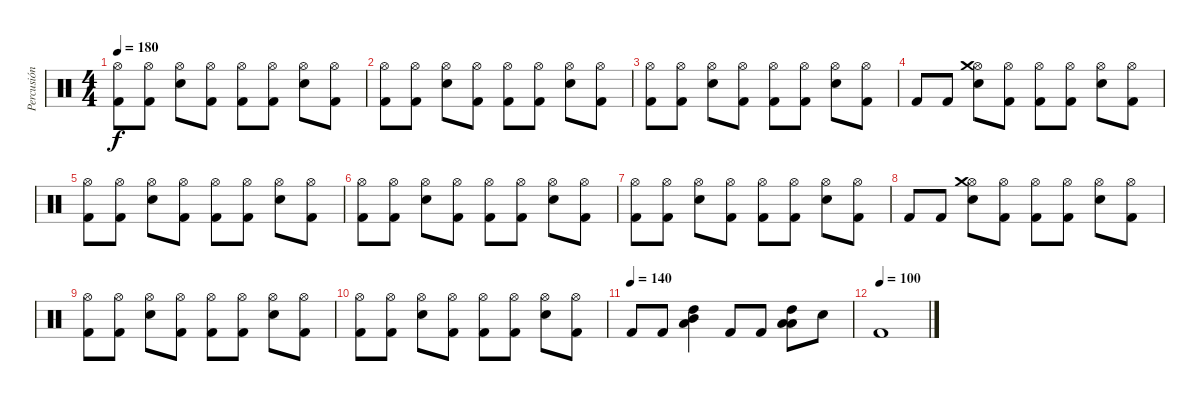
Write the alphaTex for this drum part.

\track ("Percusión" "Percusión") {instrument percussion}
\staff {score}
\articulation defaults
\ts (4 4)
\tempo 180
\clef neutral
\ks c
("Kick (hit) 2" "Hi-Hat (open)").8{dy f} ("Kick (hit) 2" "Hi-Hat (open)").8 ("Electric Snare (hit)" "Hi-Hat (open)").8 ("Kick (hit) 2" "Hi-Hat (open)").8 ("Kick (hit) 2" "Hi-Hat (open)").8 ("Kick (hit) 2" "Hi-Hat (open)").8 ("Electric Snare (hit)" "Hi-Hat (open)").8 ("Kick (hit) 2" "Hi-Hat (open)").8 |
("Kick (hit) 2" "Hi-Hat (open)").8 ("Kick (hit) 2" "Hi-Hat (open)").8 ("Electric Snare (hit)" "Hi-Hat (open)").8 ("Kick (hit) 2" "Hi-Hat (open)").8 ("Kick (hit) 2" "Hi-Hat (open)").8 ("Kick (hit) 2" "Hi-Hat (open)").8 ("Electric Snare (hit)" "Hi-Hat (open)").8 ("Kick (hit) 2" "Hi-Hat (open)").8 |
("Kick (hit) 2" "Hi-Hat (open)").8 ("Kick (hit) 2" "Hi-Hat (open)").8 ("Electric Snare (hit)" "Hi-Hat (open)").8 ("Kick (hit) 2" "Hi-Hat (open)").8 ("Kick (hit) 2" "Hi-Hat (open)").8 ("Kick (hit) 2" "Hi-Hat (open)").8 ("Electric Snare (hit)" "Hi-Hat (open)").8 ("Kick (hit) 2" "Hi-Hat (open)").8 |
"Kick (hit) 2".8 "Kick (hit) 2".8 ("Electric Snare (hit)" "Hi-Hat (open)" "Crash medium (hit)").8 ("Kick (hit) 2" "Hi-Hat (open)").8 ("Kick (hit) 2" "Hi-Hat (open)").8 ("Kick (hit) 2" "Hi-Hat (open)").8 ("Electric Snare (hit)" "Hi-Hat (open)").8 ("Kick (hit) 2" "Hi-Hat (open)").8 |
("Kick (hit) 2" "Hi-Hat (open)").8 ("Kick (hit) 2" "Hi-Hat (open)").8 ("Electric Snare (hit)" "Hi-Hat (open)").8 ("Kick (hit) 2" "Hi-Hat (open)").8 ("Kick (hit) 2" "Hi-Hat (open)").8 ("Kick (hit) 2" "Hi-Hat (open)").8 ("Electric Snare (hit)" "Hi-Hat (open)").8 ("Kick (hit) 2" "Hi-Hat (open)").8 |
("Kick (hit) 2" "Hi-Hat (open)").8 ("Kick (hit) 2" "Hi-Hat (open)").8 ("Electric Snare (hit)" "Hi-Hat (open)").8 ("Kick (hit) 2" "Hi-Hat (open)").8 ("Kick (hit) 2" "Hi-Hat (open)").8 ("Kick (hit) 2" "Hi-Hat (open)").8 ("Electric Snare (hit)" "Hi-Hat (open)").8 ("Kick (hit) 2" "Hi-Hat (open)").8 |
("Kick (hit) 2" "Hi-Hat (open)").8 ("Kick (hit) 2" "Hi-Hat (open)").8 ("Electric Snare (hit)" "Hi-Hat (open)").8 ("Kick (hit) 2" "Hi-Hat (open)").8 ("Kick (hit) 2" "Hi-Hat (open)").8 ("Kick (hit) 2" "Hi-Hat (open)").8 ("Electric Snare (hit)" "Hi-Hat (open)").8 ("Kick (hit) 2" "Hi-Hat (open)").8 |
"Kick (hit) 2".8 "Kick (hit) 2".8 ("Electric Snare (hit)" "Hi-Hat (open)" "Crash medium (hit)").8 ("Kick (hit) 2" "Hi-Hat (open)").8 ("Kick (hit) 2" "Hi-Hat (open)").8 ("Kick (hit) 2" "Hi-Hat (open)").8 ("Electric Snare (hit)" "Hi-Hat (open)").8 ("Kick (hit) 2" "Hi-Hat (open)").8 |
("Kick (hit) 2" "Hi-Hat (open)").8 ("Kick (hit) 2" "Hi-Hat (open)").8 ("Electric Snare (hit)" "Hi-Hat (open)").8 ("Kick (hit) 2" "Hi-Hat (open)").8 ("Kick (hit) 2" "Hi-Hat (open)").8 ("Kick (hit) 2" "Hi-Hat (open)").8 ("Electric Snare (hit)" "Hi-Hat (open)").8 ("Kick (hit) 2" "Hi-Hat (open)").8 |
("Kick (hit) 2" "Hi-Hat (open)").8 ("Kick (hit) 2" "Hi-Hat (open)").8 ("Electric Snare (hit)" "Hi-Hat (open)").8 ("Kick (hit) 2" "Hi-Hat (open)").8 ("Kick (hit) 2" "Hi-Hat (open)").8 ("Kick (hit) 2" "Hi-Hat (open)").8 ("Electric Snare (hit)" "Hi-Hat (open)").8 ("Kick (hit) 2" "Hi-Hat (open)").8 |
\tempo (140)
"Kick (hit) 2".8 "Kick (hit) 2".8 ("Mid Tom (hit)" "Low Tom (hit)" "High Tom (hit)").4 "Kick (hit) 2".8 "Kick (hit) 2".8 ("Low Tom (hit)" "Low Tom (hit)" "High Tom (hit)").8 "Electric Snare (hit)".8 |
\tempo (100)
"Kick (hit) 2".1
